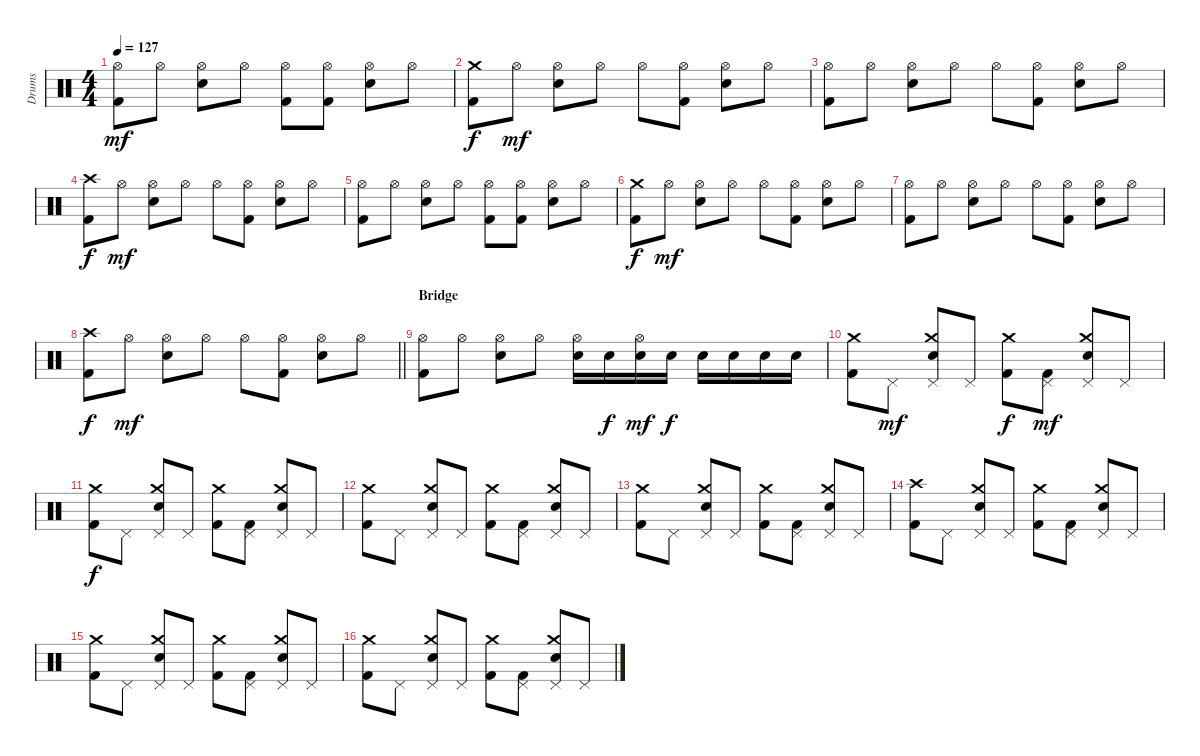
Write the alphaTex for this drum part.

\track ("Drums" "Drums") {instrument percussion}
\staff {score}
\articulation defaults
\ts (4 4)
\tempo 127
\clef neutral
\ks c
("Hi-Hat (open)" "Kick (hit) 2").8{dy mf} "Hi-Hat (open)".8 ("Hi-Hat (open)" "Snare (hit) 2").8 "Hi-Hat (open)".8 ("Hi-Hat (open)" "Kick (hit) 2").8 ("Hi-Hat (open)" "Kick (hit) 2").8 ("Hi-Hat (open)" "Snare (hit) 2").8 "Hi-Hat (open)".8 |
("Crash medium (hit)" "Kick (hit) 2").8{dy f} "Hi-Hat (open)".8{dy mf} ("Hi-Hat (open)" "Snare (hit) 2").8 "Hi-Hat (open)".8 "Hi-Hat (open)".8 ("Hi-Hat (open)" "Kick (hit) 2").8 ("Hi-Hat (open)" "Snare (hit) 2").8 "Hi-Hat (open)".8 |
("Hi-Hat (open)" "Kick (hit) 2").8 "Hi-Hat (open)".8 ("Hi-Hat (open)" "Snare (hit) 2").8 "Hi-Hat (open)".8 "Hi-Hat (open)".8 ("Hi-Hat (open)" "Kick (hit) 2").8 ("Hi-Hat (open)" "Snare (hit) 2").8 "Hi-Hat (open)".8 |
("Crash high (hit)" "Kick (hit) 2").8{dy f} "Hi-Hat (open)".8{dy mf} ("Hi-Hat (open)" "Snare (hit) 2").8 "Hi-Hat (open)".8 "Hi-Hat (open)".8 ("Hi-Hat (open)" "Kick (hit) 2").8 ("Hi-Hat (open)" "Snare (hit) 2").8 "Hi-Hat (open)".8 |
("Hi-Hat (open)" "Kick (hit) 2").8 "Hi-Hat (open)".8 ("Hi-Hat (open)" "Snare (hit) 2").8 "Hi-Hat (open)".8 ("Hi-Hat (open)" "Kick (hit) 2").8 ("Hi-Hat (open)" "Kick (hit) 2").8 ("Hi-Hat (open)" "Snare (hit) 2").8 "Hi-Hat (open)".8 |
("Crash medium (hit)" "Kick (hit) 2").8{dy f} "Hi-Hat (open)".8{dy mf} ("Hi-Hat (open)" "Snare (hit) 2").8 "Hi-Hat (open)".8 "Hi-Hat (open)".8 ("Hi-Hat (open)" "Kick (hit) 2").8 ("Hi-Hat (open)" "Snare (hit) 2").8 "Hi-Hat (open)".8 |
("Hi-Hat (open)" "Kick (hit) 2").8 "Hi-Hat (open)".8 ("Hi-Hat (open)" "Snare (hit) 2").8 "Hi-Hat (open)".8 "Hi-Hat (open)".8 ("Hi-Hat (open)" "Kick (hit) 2").8 ("Hi-Hat (open)" "Snare (hit) 2").8 "Hi-Hat (open)".8 |
\barLineRight lightlight
("Crash high (hit)" "Kick (hit) 2").8{dy f} "Hi-Hat (open)".8{dy mf} ("Hi-Hat (open)" "Snare (hit) 2").8 "Hi-Hat (open)".8 "Hi-Hat (open)".8 ("Hi-Hat (open)" "Kick (hit) 2").8 ("Hi-Hat (open)" "Snare (hit) 2").8 "Hi-Hat (open)".8 |
\section ("" "Bridge")
("Hi-Hat (open)" "Kick (hit) 2").8 "Hi-Hat (open)".8 ("Hi-Hat (open)" "Snare (hit) 2").8 "Hi-Hat (open)".8 ("Hi-Hat (open)" "Snare (hit) 2").16 "Snare (hit) 2".16{dy f} ("Hi-Hat (open)" "Snare (hit) 2").16{dy mf} "Snare (hit) 2".16{dy f} "Snare (hit) 2".16 "Snare (hit) 2".16 "Snare (hit) 2".16 "Snare (hit) 2".16 |
("Crash medium (hit)" "Kick (hit) 2").8 "Pedal Hi-Hat (hit)".8{dy mf} ("Crash medium (hit)" "Pedal Hi-Hat (hit)" "Snare (hit) 2").8 "Pedal Hi-Hat (hit)".8 ("Crash medium (hit)" "Kick (hit) 2").8{dy f} ("Pedal Hi-Hat (hit)" "Kick (hit) 2").8{dy mf} ("Crash medium (hit)" "Pedal Hi-Hat (hit)" "Snare (hit) 2").8 "Pedal Hi-Hat (hit)".8 |
("Crash medium (hit)" "Kick (hit) 2").8{dy f} "Pedal Hi-Hat (hit)".8 ("Crash medium (hit)" "Pedal Hi-Hat (hit)" "Snare (hit) 2").8 "Pedal Hi-Hat (hit)".8 ("Crash medium (hit)" "Kick (hit) 2").8 ("Pedal Hi-Hat (hit)" "Kick (hit) 2").8 ("Crash medium (hit)" "Pedal Hi-Hat (hit)" "Snare (hit) 2").8 "Pedal Hi-Hat (hit)".8 |
("Crash medium (hit)" "Kick (hit) 2").8 "Pedal Hi-Hat (hit)".8 ("Crash medium (hit)" "Pedal Hi-Hat (hit)" "Snare (hit) 2").8 "Pedal Hi-Hat (hit)".8 ("Crash medium (hit)" "Kick (hit) 2").8 ("Pedal Hi-Hat (hit)" "Kick (hit) 2").8 ("Crash medium (hit)" "Pedal Hi-Hat (hit)" "Snare (hit) 2").8 "Pedal Hi-Hat (hit)".8 |
("Crash medium (hit)" "Kick (hit) 2").8 "Pedal Hi-Hat (hit)".8 ("Crash medium (hit)" "Pedal Hi-Hat (hit)" "Snare (hit) 2").8 "Pedal Hi-Hat (hit)".8 ("Crash medium (hit)" "Kick (hit) 2").8 ("Pedal Hi-Hat (hit)" "Kick (hit) 2").8 ("Crash medium (hit)" "Pedal Hi-Hat (hit)" "Snare (hit) 2").8 "Pedal Hi-Hat (hit)".8 |
("Crash high (hit)" "Kick (hit) 2").8 "Pedal Hi-Hat (hit)".8 ("Crash medium (hit)" "Pedal Hi-Hat (hit)" "Snare (hit) 2").8 "Pedal Hi-Hat (hit)".8 ("Crash medium (hit)" "Kick (hit) 2").8 ("Pedal Hi-Hat (hit)" "Kick (hit) 2").8 ("Crash medium (hit)" "Pedal Hi-Hat (hit)" "Snare (hit) 2").8 "Pedal Hi-Hat (hit)".8 |
("Crash medium (hit)" "Kick (hit) 2").8 "Pedal Hi-Hat (hit)".8 ("Crash medium (hit)" "Pedal Hi-Hat (hit)" "Snare (hit) 2").8 "Pedal Hi-Hat (hit)".8 ("Crash medium (hit)" "Kick (hit) 2").8 ("Pedal Hi-Hat (hit)" "Kick (hit) 2").8 ("Crash medium (hit)" "Pedal Hi-Hat (hit)" "Snare (hit) 2").8 "Pedal Hi-Hat (hit)".8 |
("Crash medium (hit)" "Kick (hit) 2").8 "Pedal Hi-Hat (hit)".8 ("Crash medium (hit)" "Pedal Hi-Hat (hit)" "Snare (hit) 2").8 "Pedal Hi-Hat (hit)".8 ("Crash medium (hit)" "Kick (hit) 2").8 ("Pedal Hi-Hat (hit)" "Kick (hit) 2").8 ("Crash medium (hit)" "Pedal Hi-Hat (hit)" "Snare (hit) 2").8 "Pedal Hi-Hat (hit)".8
